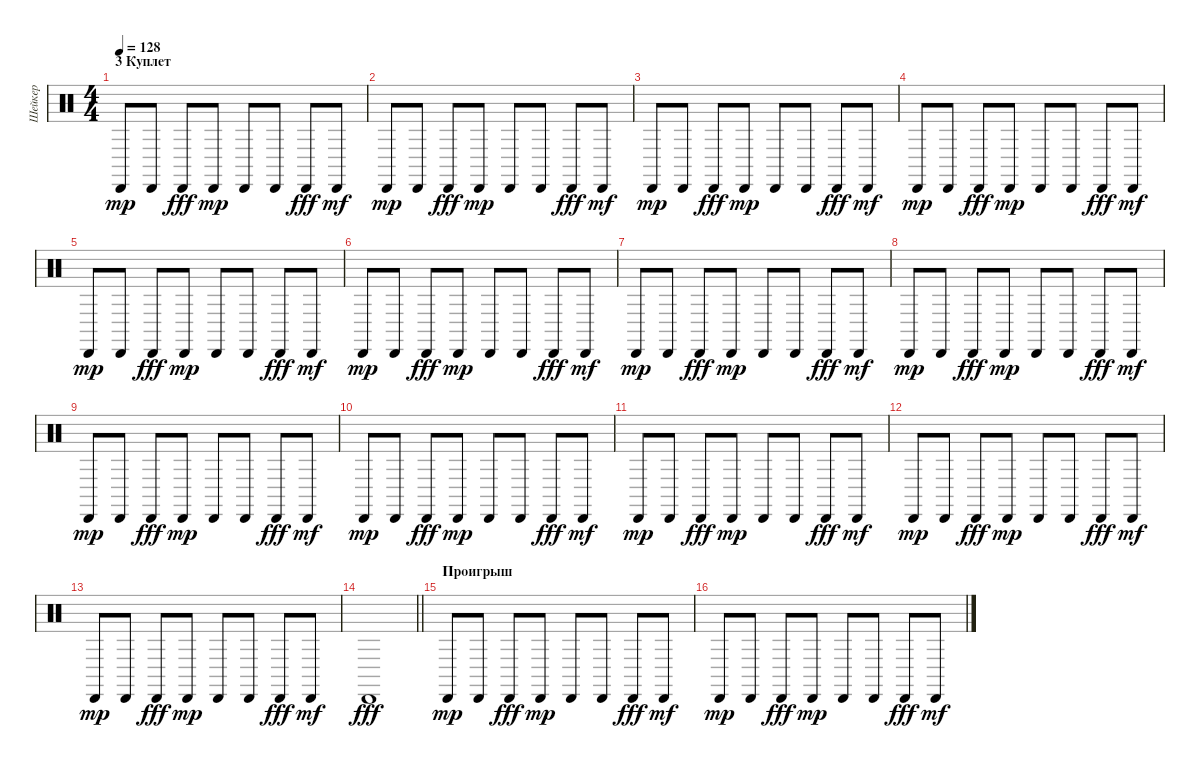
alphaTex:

\track ("Шейкер" "Шейкер") {instrument percussion}
\staff {score}
\articulation defaults
\ts (4 4)
\section ("" "3 Куплет")
\tempo 128
\clef neutral
\ks c "Cabasa (hit)".8{dy mp} "Cabasa (hit)".8 "Cabasa (hit)".8{dy fff} "Cabasa (hit)".8{dy mp} "Cabasa (hit)".8 "Cabasa (hit)".8 "Cabasa (hit)".8{dy fff} "Cabasa (hit)".8{dy mf}
|
"Cabasa (hit)".8{dy mp} "Cabasa (hit)".8 "Cabasa (hit)".8{dy fff} "Cabasa (hit)".8{dy mp} "Cabasa (hit)".8 "Cabasa (hit)".8 "Cabasa (hit)".8{dy fff} "Cabasa (hit)".8{dy mf} |
"Cabasa (hit)".8{dy mp} "Cabasa (hit)".8 "Cabasa (hit)".8{dy fff} "Cabasa (hit)".8{dy mp} "Cabasa (hit)".8 "Cabasa (hit)".8 "Cabasa (hit)".8{dy fff} "Cabasa (hit)".8{dy mf} |
"Cabasa (hit)".8{dy mp} "Cabasa (hit)".8 "Cabasa (hit)".8{dy fff} "Cabasa (hit)".8{dy mp} "Cabasa (hit)".8 "Cabasa (hit)".8 "Cabasa (hit)".8{dy fff} "Cabasa (hit)".8{dy mf} |
"Cabasa (hit)".8{dy mp} "Cabasa (hit)".8 "Cabasa (hit)".8{dy fff} "Cabasa (hit)".8{dy mp} "Cabasa (hit)".8 "Cabasa (hit)".8 "Cabasa (hit)".8{dy fff} "Cabasa (hit)".8{dy mf} |
"Cabasa (hit)".8{dy mp} "Cabasa (hit)".8 "Cabasa (hit)".8{dy fff} "Cabasa (hit)".8{dy mp} "Cabasa (hit)".8 "Cabasa (hit)".8 "Cabasa (hit)".8{dy fff} "Cabasa (hit)".8{dy mf} |
"Cabasa (hit)".8{dy mp} "Cabasa (hit)".8 "Cabasa (hit)".8{dy fff} "Cabasa (hit)".8{dy mp} "Cabasa (hit)".8 "Cabasa (hit)".8 "Cabasa (hit)".8{dy fff} "Cabasa (hit)".8{dy mf} |
"Cabasa (hit)".8{dy mp} "Cabasa (hit)".8 "Cabasa (hit)".8{dy fff} "Cabasa (hit)".8{dy mp} "Cabasa (hit)".8 "Cabasa (hit)".8 "Cabasa (hit)".8{dy fff} "Cabasa (hit)".8{dy mf} |
"Cabasa (hit)".8{dy mp} "Cabasa (hit)".8 "Cabasa (hit)".8{dy fff} "Cabasa (hit)".8{dy mp} "Cabasa (hit)".8 "Cabasa (hit)".8 "Cabasa (hit)".8{dy fff} "Cabasa (hit)".8{dy mf} |
"Cabasa (hit)".8{dy mp} "Cabasa (hit)".8 "Cabasa (hit)".8{dy fff} "Cabasa (hit)".8{dy mp} "Cabasa (hit)".8 "Cabasa (hit)".8 "Cabasa (hit)".8{dy fff} "Cabasa (hit)".8{dy mf} |
"Cabasa (hit)".8{dy mp} "Cabasa (hit)".8 "Cabasa (hit)".8{dy fff} "Cabasa (hit)".8{dy mp} "Cabasa (hit)".8 "Cabasa (hit)".8 "Cabasa (hit)".8{dy fff} "Cabasa (hit)".8{dy mf} |
"Cabasa (hit)".8{dy mp} "Cabasa (hit)".8 "Cabasa (hit)".8{dy fff} "Cabasa (hit)".8{dy mp} "Cabasa (hit)".8 "Cabasa (hit)".8 "Cabasa (hit)".8{dy fff} "Cabasa (hit)".8{dy mf} |
"Cabasa (hit)".8{dy mp} "Cabasa (hit)".8 "Cabasa (hit)".8{dy fff} "Cabasa (hit)".8{dy mp} "Cabasa (hit)".8 "Cabasa (hit)".8 "Cabasa (hit)".8{dy fff} "Cabasa (hit)".8{dy mf} |
\barLineRight lightlight "Cabasa (hit)".1{dy fff}
|
\section ("" "Проигрыш")
"Cabasa (hit)".8{dy mp} "Cabasa (hit)".8 "Cabasa (hit)".8{dy fff} "Cabasa (hit)".8{dy mp} "Cabasa (hit)".8 "Cabasa (hit)".8 "Cabasa (hit)".8{dy fff} "Cabasa (hit)".8{dy mf} |
"Cabasa (hit)".8{dy mp} "Cabasa (hit)".8 "Cabasa (hit)".8{dy fff} "Cabasa (hit)".8{dy mp} "Cabasa (hit)".8 "Cabasa (hit)".8 "Cabasa (hit)".8{dy fff} "Cabasa (hit)".8{dy mf}
